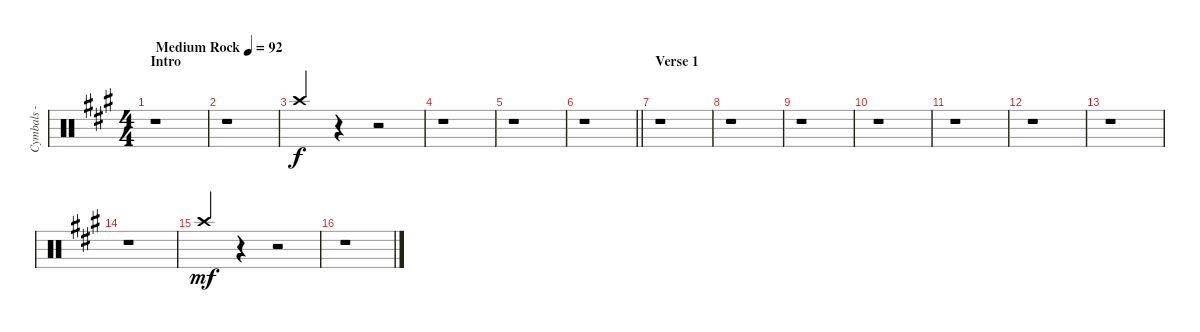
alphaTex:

\track ("Cymbals - crash" "Cymbals - ") {instrument percussion}
\staff {score}
\articulation defaults
\ts (4 4)
\section ("" "Intro")
\tempo (92 "Medium Rock")
\clef neutral
\ks f#minor
r.1{dy f} |
r.1 |
"Crash high (hit)".4{beam Up} r.4 r.2 |
r.1 |
r.1 |
\barLineRight lightlight
r.1 |
\section ("" "Verse 1")
r.1 |
r.1 |
r.1 |
r.1 |
r.1 |
r.1 |
r.1 |
r.1 |
"Crash high (hit)".4{dy mf beam Up} r.4 r.2 |
r.1
